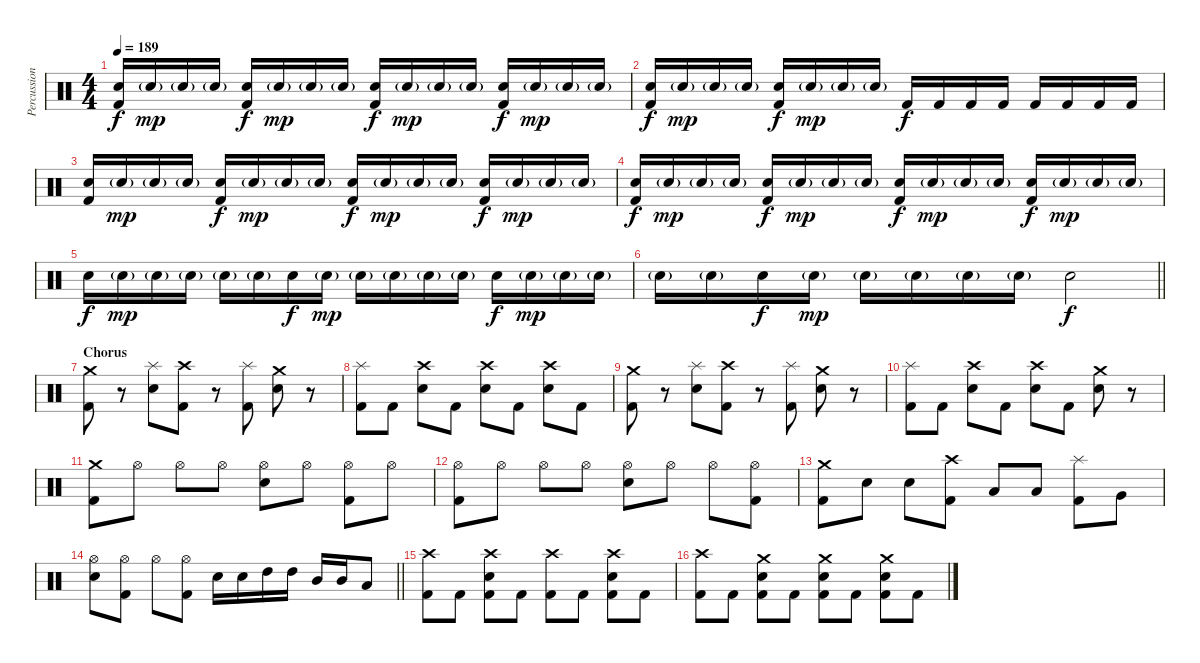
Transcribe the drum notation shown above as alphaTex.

\track ("Percussion" "Percussion") {instrument percussion}
\staff {score}
\articulation defaults
\ts (4 4)
\tempo 189
\clef neutral
\ks c
("Electric Snare (hit)" "Kick (hit) 2").16{dy f} "Electric Snare (hit)"{g}.16{dy mp} "Electric Snare (hit)"{g}.16 "Electric Snare (hit)"{g}.16 ("Electric Snare (hit)" "Kick (hit) 2").16{dy f} "Electric Snare (hit)"{g}.16{dy mp} "Electric Snare (hit)"{g}.16 "Electric Snare (hit)"{g}.16 ("Electric Snare (hit)" "Kick (hit) 2").16{dy f} "Electric Snare (hit)"{g}.16{dy mp} "Electric Snare (hit)"{g}.16 "Electric Snare (hit)"{g}.16 ("Electric Snare (hit)" "Kick (hit) 2").16{dy f} "Electric Snare (hit)"{g}.16{dy mp} "Electric Snare (hit)"{g}.16 "Electric Snare (hit)"{g}.16 |
("Electric Snare (hit)" "Kick (hit) 2").16{dy f} "Electric Snare (hit)"{g}.16{dy mp} "Electric Snare (hit)"{g}.16 "Electric Snare (hit)"{g}.16 ("Electric Snare (hit)" "Kick (hit) 2").16{dy f} "Electric Snare (hit)"{g}.16{dy mp} "Electric Snare (hit)"{g}.16 "Electric Snare (hit)"{g}.16 "Kick (hit) 2".16{dy f} "Kick (hit) 2".16 "Kick (hit) 2".16 "Kick (hit) 2".16 "Kick (hit) 2".16 "Kick (hit) 2".16 "Kick (hit) 2".16 "Kick (hit) 2".16 |
("Electric Snare (hit)" "Kick (hit) 2").16 "Electric Snare (hit)"{g}.16{dy mp} "Electric Snare (hit)"{g}.16 "Electric Snare (hit)"{g}.16 ("Electric Snare (hit)" "Kick (hit) 2").16{dy f} "Electric Snare (hit)"{g}.16{dy mp} "Electric Snare (hit)"{g}.16 "Electric Snare (hit)"{g}.16 ("Electric Snare (hit)" "Kick (hit) 2").16{dy f} "Electric Snare (hit)"{g}.16{dy mp} "Electric Snare (hit)"{g}.16 "Electric Snare (hit)"{g}.16 ("Electric Snare (hit)" "Kick (hit) 2").16{dy f} "Electric Snare (hit)"{g}.16{dy mp} "Electric Snare (hit)"{g}.16 "Electric Snare (hit)"{g}.16 |
("Electric Snare (hit)" "Kick (hit) 2").16{dy f} "Electric Snare (hit)"{g}.16{dy mp} "Electric Snare (hit)"{g}.16 "Electric Snare (hit)"{g}.16 ("Electric Snare (hit)" "Kick (hit) 2").16{dy f} "Electric Snare (hit)"{g}.16{dy mp} "Electric Snare (hit)"{g}.16 "Electric Snare (hit)"{g}.16 ("Electric Snare (hit)" "Kick (hit) 2").16{dy f} "Electric Snare (hit)"{g}.16{dy mp} "Electric Snare (hit)"{g}.16 "Electric Snare (hit)"{g}.16 ("Electric Snare (hit)" "Kick (hit) 2").16{dy f} "Electric Snare (hit)"{g}.16{dy mp} "Electric Snare (hit)"{g}.16 "Electric Snare (hit)"{g}.16 |
"Electric Snare (hit)".16{dy f} "Electric Snare (hit)"{g}.16{dy mp} "Electric Snare (hit)"{g}.16 "Electric Snare (hit)"{g}.16 "Electric Snare (hit)"{g}.16 "Electric Snare (hit)"{g}.16 "Electric Snare (hit)".16{dy f} "Electric Snare (hit)"{g}.16{dy mp} "Electric Snare (hit)"{g}.16 "Electric Snare (hit)"{g}.16 "Electric Snare (hit)"{g}.16 "Electric Snare (hit)"{g}.16 "Electric Snare (hit)".16{dy f} "Electric Snare (hit)"{g}.16{dy mp} "Electric Snare (hit)"{g}.16 "Electric Snare (hit)"{g}.16 |
\barLineRight lightlight "Electric Snare (hit)"{g}.16 "Electric Snare (hit)"{g}.16 "Electric Snare (hit)".16{dy f} "Electric Snare (hit)"{g}.16{dy mp} "Electric Snare (hit)"{g}.16 "Electric Snare (hit)"{g}.16 "Electric Snare (hit)"{g}.16 "Electric Snare (hit)"{g}.16 "Electric Snare (hit)".2{dy f}
|
\section ("" "Chorus")
("Crash medium (hit)" "Kick (hit) 2").8 r.8 ("Splash (hit)" "Electric Snare (hit)").8 ("Crash high (hit)" "Kick (hit) 2").8 r.8 ("Splash (hit)" "Kick (hit) 2").8 ("Crash medium (hit)" "Electric Snare (hit)").8 r.8 |
("Splash (hit)" "Kick (hit) 2").8 "Kick (hit) 2".8 ("Crash high (hit)" "Electric Snare (hit)").8 "Kick (hit) 2".8 ("Crash high (hit)" "Electric Snare (hit)").8 "Kick (hit) 2".8 ("Crash high (hit)" "Electric Snare (hit)").8 "Kick (hit) 2".8 |
("Crash medium (hit)" "Kick (hit) 2").8 r.8 ("Splash (hit)" "Electric Snare (hit)").8 ("Crash high (hit)" "Kick (hit) 2").8 r.8 ("Splash (hit)" "Kick (hit) 2").8 ("Crash medium (hit)" "Electric Snare (hit)").8 r.8 |
("Splash (hit)" "Kick (hit) 2").8 "Kick (hit) 2".8 ("Crash high (hit)" "Electric Snare (hit)").8 "Kick (hit) 2".8 ("Crash high (hit)" "Electric Snare (hit)").8 "Kick (hit) 2".8 ("Crash medium (hit)" "Electric Snare (hit)").8 r.8 |
("Crash medium (hit)" "Kick (hit) 2").8 "Hi-Hat (open)".8 "Hi-Hat (open)".8 "Hi-Hat (open)".8 ("Hi-Hat (open)" "Electric Snare (hit)").8 "Hi-Hat (open)".8 ("Hi-Hat (open)" "Kick (hit) 2").8 "Hi-Hat (open)".8 |
("Hi-Hat (open)" "Kick (hit) 2").8 "Hi-Hat (open)".8 "Hi-Hat (open)".8 "Hi-Hat (open)".8 ("Hi-Hat (open)" "Electric Snare (hit)").8 "Hi-Hat (open)".8 "Hi-Hat (open)".8 ("Hi-Hat (open)" "Kick (hit) 2").8 |
("Crash medium (hit)" "Kick (hit) 2").8 "Electric Snare (hit)".8 "Electric Snare (hit)".8 ("Crash high (hit)" "Kick (hit) 2").8 "Low Tom (hit)".8 "Low Tom (hit)".8 ("Splash (hit)" "Kick (hit) 2").8 "Very Low Tom (hit)".8 |
\barLineRight lightlight
("Hi-Hat (open)" "Electric Snare (hit)").8 ("Hi-Hat (open)" "Kick (hit) 2").8 "Hi-Hat (open)".8 ("Hi-Hat (open)" "Kick (hit) 2").8 "Electric Snare (hit)".16 "Electric Snare (hit)".16 "High Tom (hit)".16 "High Tom (hit)".16 "Mid Tom (hit)".16 "Mid Tom (hit)".16 "Low Tom (hit)".8 |
("Crash high (hit)" "Kick (hit) 2").8 "Kick (hit) 2".8 ("Crash high (hit)" "Electric Snare (hit)" "Kick (hit) 2").8 "Kick (hit) 2".8 ("Crash high (hit)" "Kick (hit) 2").8 "Kick (hit) 2".8 ("Crash high (hit)" "Electric Snare (hit)" "Kick (hit) 2").8 "Kick (hit) 2".8 |
("Crash high (hit)" "Kick (hit) 2").8 "Kick (hit) 2".8 ("Crash medium (hit)" "Electric Snare (hit)" "Kick (hit) 2").8 "Kick (hit) 2".8 ("Crash medium (hit)" "Electric Snare (hit)" "Kick (hit) 2").8 "Kick (hit) 2".8 ("Crash medium (hit)" "Electric Snare (hit)" "Kick (hit) 2").8 "Kick (hit) 2".8
